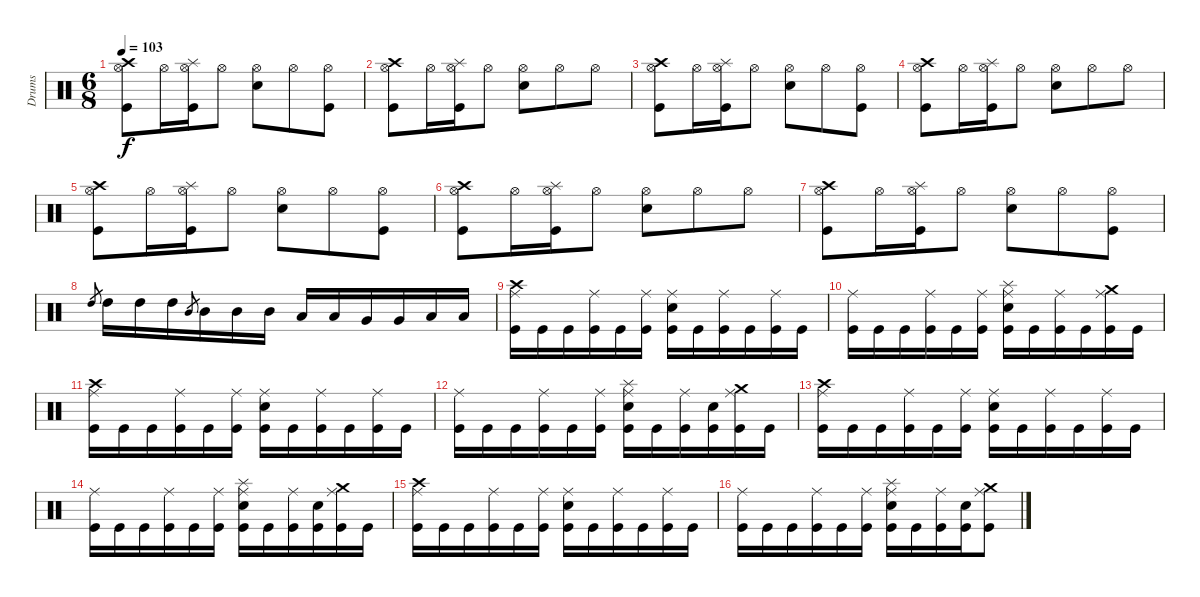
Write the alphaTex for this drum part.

\track ("Drums" "Drums") {instrument percussion}
\staff {score}
\articulation defaults
\ts (6 8)
\tempo 103
\clef neutral
\ks c
("Crash high (hit)" "Hi-Hat (open)" "Kick (hit)").8{dy f} "Hi-Hat (open)".16 ("Splash (hit)" "Hi-Hat (open)" "Kick (hit)").16 "Hi-Hat (open)".8 ("Hi-Hat (open)" "Electric Snare (hit)").8 "Hi-Hat (open)".8 ("Hi-Hat (open)" "Kick (hit)").8 |
("Crash high (hit)" "Hi-Hat (open)" "Kick (hit)").8 "Hi-Hat (open)".16 ("Splash (hit)" "Hi-Hat (open)" "Kick (hit)").16 "Hi-Hat (open)".8 ("Hi-Hat (open)" "Electric Snare (hit)").8 "Hi-Hat (open)".8 "Hi-Hat (open)".8 |
("Crash high (hit)" "Hi-Hat (open)" "Kick (hit)").8 "Hi-Hat (open)".16 ("Splash (hit)" "Hi-Hat (open)" "Kick (hit)").16 "Hi-Hat (open)".8 ("Hi-Hat (open)" "Electric Snare (hit)").8 "Hi-Hat (open)".8 ("Hi-Hat (open)" "Kick (hit)").8 |
("Crash high (hit)" "Hi-Hat (open)" "Kick (hit)").8 "Hi-Hat (open)".16 ("Splash (hit)" "Hi-Hat (open)" "Kick (hit)").16 "Hi-Hat (open)".8 ("Hi-Hat (open)" "Electric Snare (hit)").8 "Hi-Hat (open)".8 "Hi-Hat (open)".8 |
("Crash high (hit)" "Hi-Hat (open)" "Kick (hit)").8 "Hi-Hat (open)".16 ("Splash (hit)" "Hi-Hat (open)" "Kick (hit)").16 "Hi-Hat (open)".8 ("Hi-Hat (open)" "Electric Snare (hit)").8 "Hi-Hat (open)".8 ("Hi-Hat (open)" "Kick (hit)").8 |
("Crash high (hit)" "Hi-Hat (open)" "Kick (hit)").8 "Hi-Hat (open)".16 ("Splash (hit)" "Hi-Hat (open)" "Kick (hit)").16 "Hi-Hat (open)".8 ("Hi-Hat (open)" "Electric Snare (hit)").8 "Hi-Hat (open)".8 "Hi-Hat (open)".8 |
("Crash high (hit)" "Hi-Hat (open)" "Kick (hit)").8 "Hi-Hat (open)".16 ("Splash (hit)" "Hi-Hat (open)" "Kick (hit)").16 "Hi-Hat (open)".8 ("Hi-Hat (open)" "Electric Snare (hit)").8 "Hi-Hat (open)".8 ("Hi-Hat (open)" "Kick (hit)").8 |
"High Tom (hit)".8{gr} "High Tom (hit)".16 "High Tom (hit)".16 "High Tom (hit)".16 "Mid Tom (hit)".8{gr} "Mid Tom (hit)".16 "Mid Tom (hit)".16 "Mid Tom (hit)".16 "Low Tom (hit)".16 "Low Tom (hit)".16 "Very Low Tom (hit)".16 "Very Low Tom (hit)".16 "Low Floor Tom (hit)".16 "Low Floor Tom (hit)".16 |
("Crash high (hit)" "Ride (middle)" "Kick (hit)").16 "Kick (hit)".16 "Kick (hit)".16 ("Ride (middle)" "Kick (hit)").16 "Kick (hit)".16 ("Ride (middle)" "Kick (hit)").16 ("Ride (middle)" "Electric Snare (hit)" "Kick (hit)").16 "Kick (hit)".16 ("Ride (middle)" "Kick (hit)").16 "Kick (hit)".16 ("Ride (middle)" "Kick (hit)").16 "Kick (hit)".16 |
("Ride (middle)" "Kick (hit)").16 "Kick (hit)".16 "Kick (hit)".16 ("Ride (middle)" "Kick (hit)").16 "Kick (hit)".16 ("Ride (middle)" "Kick (hit)").16 ("Splash (hit)" "Ride (middle)" "Electric Snare (hit)" "Kick (hit)").16 "Kick (hit)".16 ("Ride (middle)" "Kick (hit)").16 "Kick (hit)".16 ("Crash medium (hit)" "Ride (middle)" "Kick (hit)").16 "Kick (hit)".16 |
("Crash high (hit)" "Ride (middle)" "Kick (hit)").16 "Kick (hit)".16 "Kick (hit)".16 ("Ride (middle)" "Kick (hit)").16 "Kick (hit)".16 ("Ride (middle)" "Kick (hit)").16 ("Ride (middle)" "Electric Snare (hit)" "Kick (hit)").16 "Kick (hit)".16 ("Ride (middle)" "Kick (hit)").16 "Kick (hit)".16 ("Ride (middle)" "Kick (hit)").16 "Kick (hit)".16 |
("Ride (middle)" "Kick (hit)").16 "Kick (hit)".16 "Kick (hit)".16 ("Ride (middle)" "Kick (hit)").16 "Kick (hit)".16 ("Ride (middle)" "Kick (hit)").16 ("Splash (hit)" "Ride (middle)" "Electric Snare (hit)" "Kick (hit)").16 "Kick (hit)".16 ("Ride (middle)" "Kick (hit)").16 ("Electric Snare (hit)" "Kick (hit)").16 ("Crash medium (hit)" "Ride (middle)" "Kick (hit)").16 "Kick (hit)".16 |
("Crash high (hit)" "Ride (middle)" "Kick (hit)").16 "Kick (hit)".16 "Kick (hit)".16 ("Ride (middle)" "Kick (hit)").16 "Kick (hit)".16 ("Ride (middle)" "Kick (hit)").16 ("Ride (middle)" "Electric Snare (hit)" "Kick (hit)").16 "Kick (hit)".16 ("Ride (middle)" "Kick (hit)").16 "Kick (hit)".16 ("Ride (middle)" "Kick (hit)").16 "Kick (hit)".16 |
("Ride (middle)" "Kick (hit)").16 "Kick (hit)".16 "Kick (hit)".16 ("Ride (middle)" "Kick (hit)").16 "Kick (hit)".16 ("Ride (middle)" "Kick (hit)").16 ("Splash (hit)" "Ride (middle)" "Electric Snare (hit)" "Kick (hit)").16 "Kick (hit)".16 ("Ride (middle)" "Kick (hit)").16 ("Electric Snare (hit)" "Kick (hit)").16 ("Crash medium (hit)" "Ride (middle)" "Kick (hit)").16 "Kick (hit)".16 |
("Crash high (hit)" "Ride (middle)" "Kick (hit)").16 "Kick (hit)".16 "Kick (hit)".16 ("Ride (middle)" "Kick (hit)").16 "Kick (hit)".16 ("Ride (middle)" "Kick (hit)").16 ("Ride (middle)" "Electric Snare (hit)" "Kick (hit)").16 "Kick (hit)".16 ("Ride (middle)" "Kick (hit)").16 "Kick (hit)".16 ("Ride (middle)" "Kick (hit)").16 "Kick (hit)".16 |
("Ride (middle)" "Kick (hit)").16 "Kick (hit)".16 "Kick (hit)".16 ("Ride (middle)" "Kick (hit)").16 "Kick (hit)".16 ("Ride (middle)" "Kick (hit)").16 ("Splash (hit)" "Ride (middle)" "Electric Snare (hit)" "Kick (hit)").16 "Kick (hit)".16 ("Ride (middle)" "Kick (hit)").16 ("Electric Snare (hit)" "Kick (hit)").16 ("Crash medium (hit)" "Ride (middle)" "Kick (hit)").8
